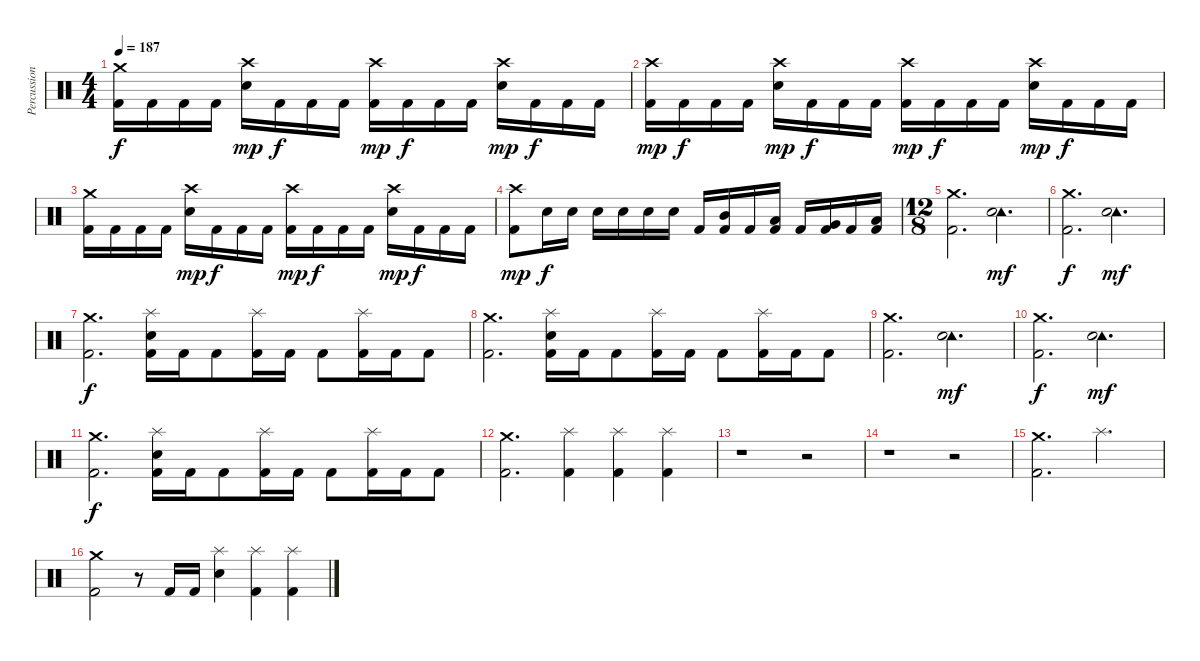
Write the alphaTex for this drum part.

\track ("Percussion" "Percussion") {instrument percussion}
\staff {score}
\articulation defaults
\ts (4 4)
\tempo 187
\clef neutral
\ks c
("Crash medium (hit)" "Kick (hit) 2").16{dy f} "Kick (hit) 2".16 "Kick (hit) 2".16 "Kick (hit) 2".16 ("Crash high (hit)" "Snare (hit) 2").16{dy mp} "Kick (hit) 2".16{dy f} "Kick (hit) 2".16 "Kick (hit) 2".16 ("Crash high (hit)" "Kick (hit) 2").16{dy mp} "Kick (hit) 2".16{dy f} "Kick (hit) 2".16 "Kick (hit) 2".16 ("Crash high (hit)" "Snare (hit) 2").16{dy mp} "Kick (hit) 2".16{dy f} "Kick (hit) 2".16 "Kick (hit) 2".16 |
("Crash high (hit)" "Kick (hit) 2").16{dy mp} "Kick (hit) 2".16{dy f} "Kick (hit) 2".16 "Kick (hit) 2".16 ("Crash high (hit)" "Snare (hit) 2").16{dy mp} "Kick (hit) 2".16{dy f} "Kick (hit) 2".16 "Kick (hit) 2".16 ("Crash high (hit)" "Kick (hit) 2").16{dy mp} "Kick (hit) 2".16{dy f} "Kick (hit) 2".16 "Kick (hit) 2".16 ("Crash high (hit)" "Snare (hit) 2").16{dy mp} "Kick (hit) 2".16{dy f} "Kick (hit) 2".16 "Kick (hit) 2".16 |
("Crash medium (hit)" "Kick (hit) 2").16 "Kick (hit) 2".16 "Kick (hit) 2".16 "Kick (hit) 2".16 ("Crash high (hit)" "Snare (hit) 2").16{dy mp} "Kick (hit) 2".16{dy f} "Kick (hit) 2".16 "Kick (hit) 2".16 ("Crash high (hit)" "Kick (hit) 2").16{dy mp} "Kick (hit) 2".16{dy f} "Kick (hit) 2".16 "Kick (hit) 2".16 ("Crash high (hit)" "Snare (hit) 2").16{dy mp} "Kick (hit) 2".16{dy f} "Kick (hit) 2".16 "Kick (hit) 2".16 |
("Crash high (hit)" "Kick (hit) 2").8{dy mp} "Snare (hit) 2".16{dy f} "Snare (hit) 2".16 "Snare (hit) 2".16 "Snare (hit) 2".16 "Snare (hit) 2".16 "Snare (hit) 2".16 "Kick (hit) 2".16 ("Mid Tom (hit)" "Kick (hit) 2").16 "Kick (hit) 2".16 ("Low Tom (hit)" "Kick (hit) 2").16 "Kick (hit) 2".16 ("Very Low Tom (hit)" "Kick (hit) 2").16 "Kick (hit) 2".16 ("Low Floor Tom (hit)" "Kick (hit) 2").16 |
\ts (12 8)
("Crash medium (hit)" "Kick (hit) 2").2{d} ("Tambourine (hit)" "Snare (hit) 2").2{d dy mf} |
("Crash medium (hit)" "Kick (hit) 2").2{d dy f} ("Tambourine (hit)" "Snare (hit) 2").2{d dy mf} |
("Crash medium (hit)" "Kick (hit) 2").2{d dy f} ("Splash (hit)" "Snare (hit) 2" "Kick (hit) 2").16 "Kick (hit) 2".16 "Kick (hit) 2".8 ("Splash (hit)" "Kick (hit) 2").16 "Kick (hit) 2".16 "Kick (hit) 2".8 ("Splash (hit)" "Kick (hit) 2").16 "Kick (hit) 2".16 "Kick (hit) 2".8 |
("Crash medium (hit)" "Kick (hit) 2").2{d} ("Splash (hit)" "Snare (hit) 2" "Kick (hit) 2").16 "Kick (hit) 2".16 "Kick (hit) 2".8 ("Splash (hit)" "Kick (hit) 2").16 "Kick (hit) 2".16 "Kick (hit) 2".8 ("Splash (hit)" "Kick (hit) 2").16 "Kick (hit) 2".16 "Kick (hit) 2".8 |
("Crash medium (hit)" "Kick (hit) 2").2{d} ("Tambourine (hit)" "Snare (hit) 2").2{d dy mf} |
("Crash medium (hit)" "Kick (hit) 2").2{d dy f} ("Tambourine (hit)" "Snare (hit) 2").2{d dy mf} |
("Crash medium (hit)" "Kick (hit) 2").2{d dy f} ("Splash (hit)" "Snare (hit) 2" "Kick (hit) 2").16 "Kick (hit) 2".16 "Kick (hit) 2".8 ("Splash (hit)" "Kick (hit) 2").16 "Kick (hit) 2".16 "Kick (hit) 2".8 ("Splash (hit)" "Kick (hit) 2").16 "Kick (hit) 2".16 "Kick (hit) 2".8 |
("Crash medium (hit)" "Kick (hit) 2").2{d} ("Splash (hit)" "Kick (hit) 2").4 ("Splash (hit)" "Kick (hit) 2").4 ("Splash (hit)" "Kick (hit) 2").4 |
r.1 r.2 |
r.1 r.2 |
("Crash medium (hit)" "Kick (hit) 2").2{d} "Splash (hit)".2{d} |
("Crash medium (hit)" "Kick (hit) 2").2 r.8 "Kick (hit) 2".16 "Kick (hit) 2".16 ("Splash (hit)" "Snare (hit) 2").4 ("Splash (hit)" "Kick (hit) 2").4 ("Splash (hit)" "Kick (hit) 2").4
